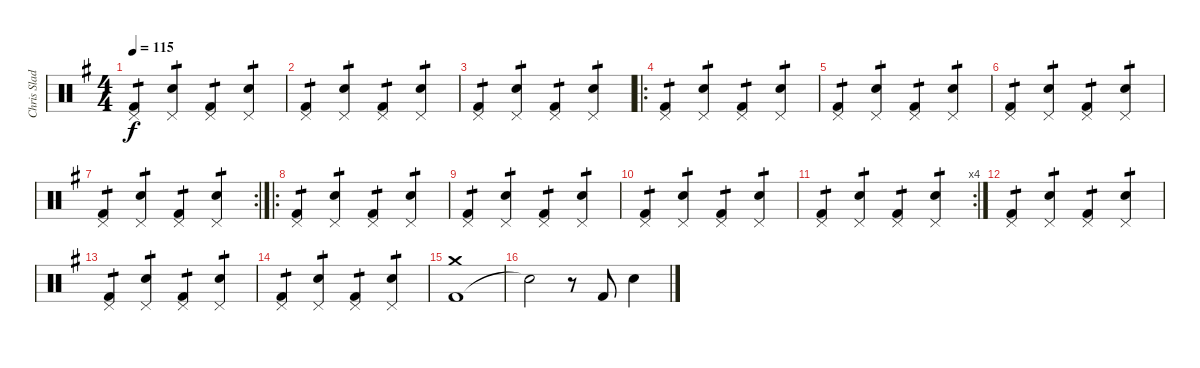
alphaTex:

\track ("Chris Slade" "Chris Slad") {instrument percussion}
\staff {score}
\articulation defaults
\ts (4 4)
\tempo 115
\clef neutral
\ks g
("Kick (hit) 2" "Pedal Hi-Hat (hit)").4{tp 1 dy f} ("Snare (hit) 2" "Pedal Hi-Hat (hit)").4{tp 1} ("Kick (hit) 2" "Pedal Hi-Hat (hit)").4{tp 1} ("Snare (hit) 2" "Pedal Hi-Hat (hit)").4{tp 1} |
("Kick (hit) 2" "Pedal Hi-Hat (hit)").4{tp 1} ("Snare (hit) 2" "Pedal Hi-Hat (hit)").4{tp 1} ("Kick (hit) 2" "Pedal Hi-Hat (hit)").4{tp 1} ("Snare (hit) 2" "Pedal Hi-Hat (hit)").4{tp 1} |
("Kick (hit) 2" "Pedal Hi-Hat (hit)").4{tp 1} ("Snare (hit) 2" "Pedal Hi-Hat (hit)").4{tp 1} ("Kick (hit) 2" "Pedal Hi-Hat (hit)").4{tp 1} ("Snare (hit) 2" "Pedal Hi-Hat (hit)").4{tp 1} |
\ro
("Kick (hit) 2" "Pedal Hi-Hat (hit)").4{tp 1} ("Snare (hit) 2" "Pedal Hi-Hat (hit)").4{tp 1} ("Kick (hit) 2" "Pedal Hi-Hat (hit)").4{tp 1} ("Snare (hit) 2" "Pedal Hi-Hat (hit)").4{tp 1} |
("Kick (hit) 2" "Pedal Hi-Hat (hit)").4{tp 1} ("Snare (hit) 2" "Pedal Hi-Hat (hit)").4{tp 1} ("Kick (hit) 2" "Pedal Hi-Hat (hit)").4{tp 1} ("Snare (hit) 2" "Pedal Hi-Hat (hit)").4{tp 1} |
("Kick (hit) 2" "Pedal Hi-Hat (hit)").4{tp 1} ("Snare (hit) 2" "Pedal Hi-Hat (hit)").4{tp 1} ("Kick (hit) 2" "Pedal Hi-Hat (hit)").4{tp 1} ("Snare (hit) 2" "Pedal Hi-Hat (hit)").4{tp 1} |
\rc 2
("Kick (hit) 2" "Pedal Hi-Hat (hit)").4{tp 1} ("Snare (hit) 2" "Pedal Hi-Hat (hit)").4{tp 1} ("Kick (hit) 2" "Pedal Hi-Hat (hit)").4{tp 1} ("Snare (hit) 2" "Pedal Hi-Hat (hit)").4{tp 1} |
\ro
("Kick (hit) 2" "Pedal Hi-Hat (hit)").4{tp 1} ("Snare (hit) 2" "Pedal Hi-Hat (hit)").4{tp 1} ("Kick (hit) 2" "Pedal Hi-Hat (hit)").4{tp 1} ("Snare (hit) 2" "Pedal Hi-Hat (hit)").4{tp 1} |
("Kick (hit) 2" "Pedal Hi-Hat (hit)").4{tp 1} ("Snare (hit) 2" "Pedal Hi-Hat (hit)").4{tp 1} ("Kick (hit) 2" "Pedal Hi-Hat (hit)").4{tp 1} ("Snare (hit) 2" "Pedal Hi-Hat (hit)").4{tp 1} |
("Kick (hit) 2" "Pedal Hi-Hat (hit)").4{tp 1} ("Snare (hit) 2" "Pedal Hi-Hat (hit)").4{tp 1} ("Kick (hit) 2" "Pedal Hi-Hat (hit)").4{tp 1} ("Snare (hit) 2" "Pedal Hi-Hat (hit)").4{tp 1} |
\rc 4
("Kick (hit) 2" "Pedal Hi-Hat (hit)").4{tp 1} ("Snare (hit) 2" "Pedal Hi-Hat (hit)").4{tp 1} ("Kick (hit) 2" "Pedal Hi-Hat (hit)").4{tp 1} ("Snare (hit) 2" "Pedal Hi-Hat (hit)").4{tp 1} |
("Kick (hit) 2" "Pedal Hi-Hat (hit)").4{tp 1} ("Snare (hit) 2" "Pedal Hi-Hat (hit)").4{tp 1} ("Kick (hit) 2" "Pedal Hi-Hat (hit)").4{tp 1} ("Snare (hit) 2" "Pedal Hi-Hat (hit)").4{tp 1} |
("Kick (hit) 2" "Pedal Hi-Hat (hit)").4{tp 1} ("Snare (hit) 2" "Pedal Hi-Hat (hit)").4{tp 1} ("Kick (hit) 2" "Pedal Hi-Hat (hit)").4{tp 1} ("Snare (hit) 2" "Pedal Hi-Hat (hit)").4{tp 1} |
("Kick (hit) 2" "Pedal Hi-Hat (hit)").4{tp 1} ("Snare (hit) 2" "Pedal Hi-Hat (hit)").4{tp 1} ("Kick (hit) 2" "Pedal Hi-Hat (hit)").4{tp 1} ("Snare (hit) 2" "Pedal Hi-Hat (hit)").4{tp 1} |
("Kick (hit) 2" "Crash medium (hit)").1 |
"Snare (hit)"{t}.2 r.8 "Kick (hit) 2".8 "Snare (hit) 2".4
